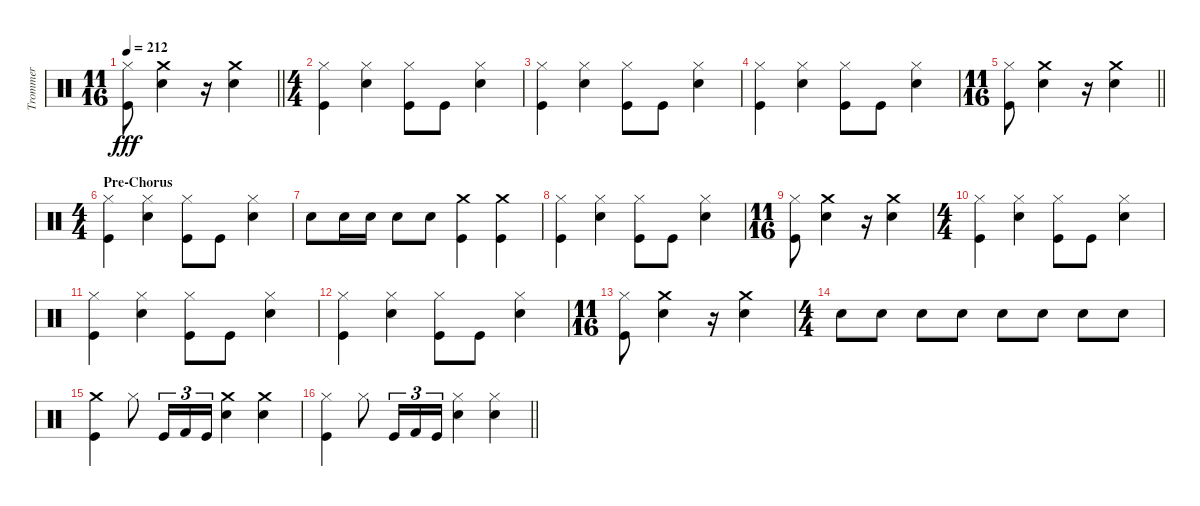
\track ("Trommer" "Trommer") {instrument percussion}
\staff {score}
\articulation defaults
\ts (11 16)
\tempo 212
\clef neutral
\barLineRight lightlight
\ks c
("Kick (hit)" "Hi-Hat (closed)").8{dy fff} ("Crash medium (hit)" "Snare (hit) 2").4 r.16 ("Crash medium (hit)" "Snare (hit) 2").4 |
\ts (4 4)
("Hi-Hat (closed)" "Kick (hit)").4 ("Snare (hit) 2" "Hi-Hat (closed)").4 ("Kick (hit)" "Hi-Hat (closed)").8 "Kick (hit)".8 ("Snare (hit) 2" "Hi-Hat (closed)").4 |
("Kick (hit)" "Hi-Hat (closed)").4 ("Snare (hit) 2" "Hi-Hat (closed)").4 ("Hi-Hat (closed)" "Kick (hit)").8 "Kick (hit)".8 ("Snare (hit) 2" "Hi-Hat (closed)").4 |
("Kick (hit)" "Hi-Hat (closed)").4 ("Snare (hit) 2" "Hi-Hat (closed)").4 ("Kick (hit)" "Hi-Hat (closed)").8 "Kick (hit)".8 ("Hi-Hat (closed)" "Snare (hit) 2").4 |
\ts (11 16)
\barLineRight lightlight
("Kick (hit)" "Hi-Hat (closed)").8 ("Crash medium (hit)" "Snare (hit) 2").4 r.16 ("Crash medium (hit)" "Snare (hit) 2").4 |
\ts (4 4)
\section ("" "Pre-Chorus")
("Hi-Hat (closed)" "Kick (hit)").4 ("Snare (hit) 2" "Hi-Hat (closed)").4 ("Kick (hit)" "Hi-Hat (closed)").8 "Kick (hit)".8 ("Snare (hit) 2" "Hi-Hat (closed)").4 |
"Snare (hit) 2".8 "Snare (hit) 2".16 "Snare (hit) 2".16 "Snare (hit) 2".8 "Snare (hit) 2".8 ("Kick (hit)" "Crash medium (hit)").4 ("Kick (hit)" "Crash medium (hit)").4 |
("Kick (hit)" "Hi-Hat (closed)").4 ("Snare (hit) 2" "Hi-Hat (closed)").4 ("Kick (hit)" "Hi-Hat (closed)").8 "Kick (hit)".8 ("Snare (hit) 2" "Hi-Hat (closed)").4 |
\ts (11 16)
("Hi-Hat (closed)" "Kick (hit)").8 ("Crash medium (hit)" "Snare (hit) 2").4 r.16 ("Crash medium (hit)" "Snare (hit) 2").4 |
\ts (4 4)
("Kick (hit)" "Hi-Hat (closed)").4 ("Snare (hit) 2" "Hi-Hat (closed)").4 ("Kick (hit)" "Hi-Hat (closed)").8 "Kick (hit)".8 ("Hi-Hat (closed)" "Snare (hit) 2").4 |
("Kick (hit)" "Hi-Hat (closed)").4 ("Snare (hit) 2" "Hi-Hat (closed)").4 ("Kick (hit)" "Hi-Hat (closed)").8 "Kick (hit)".8 ("Snare (hit) 2" "Hi-Hat (closed)").4 |
("Kick (hit)" "Hi-Hat (closed)").4 ("Hi-Hat (closed)" "Snare (hit) 2").4 ("Kick (hit)" "Hi-Hat (closed)").8 "Kick (hit)".8 ("Snare (hit) 2" "Hi-Hat (closed)").4 |
\ts (11 16)
("Kick (hit)" "Hi-Hat (closed)").8 ("Crash medium (hit)" "Snare (hit) 2").4 r.16 ("Crash medium (hit)" "Snare (hit) 2").4 |
\ts (4 4)
"Snare (hit) 2".8 "Snare (hit) 2".8 "Snare (hit) 2".8 "Snare (hit) 2".8 "Snare (hit) 2".8 "Snare (hit) 2".8 "Snare (hit) 2".8 "Snare (hit) 2".8 |
("Crash medium (hit)" "Kick (hit)").4 "Hi-Hat (closed)".8 "Kick (hit)".16{tu (3 2)} "Kick (hit) 2".16{tu (3 2)} "Kick (hit)".16{tu (3 2)} ("Snare (hit) 2" "Crash medium (hit)").4 ("Crash medium (hit)" "Snare (hit) 2").4 |
\barLineRight lightlight
("Kick (hit)" "Hi-Hat (closed)").4 "Hi-Hat (closed)".8 "Kick (hit)".16{tu (3 2)} "Kick (hit) 2".16{tu (3 2)} "Kick (hit)".16{tu (3 2)} ("Snare (hit) 2" "Hi-Hat (closed)").4 ("Snare (hit) 2" "Hi-Hat (closed)").4
